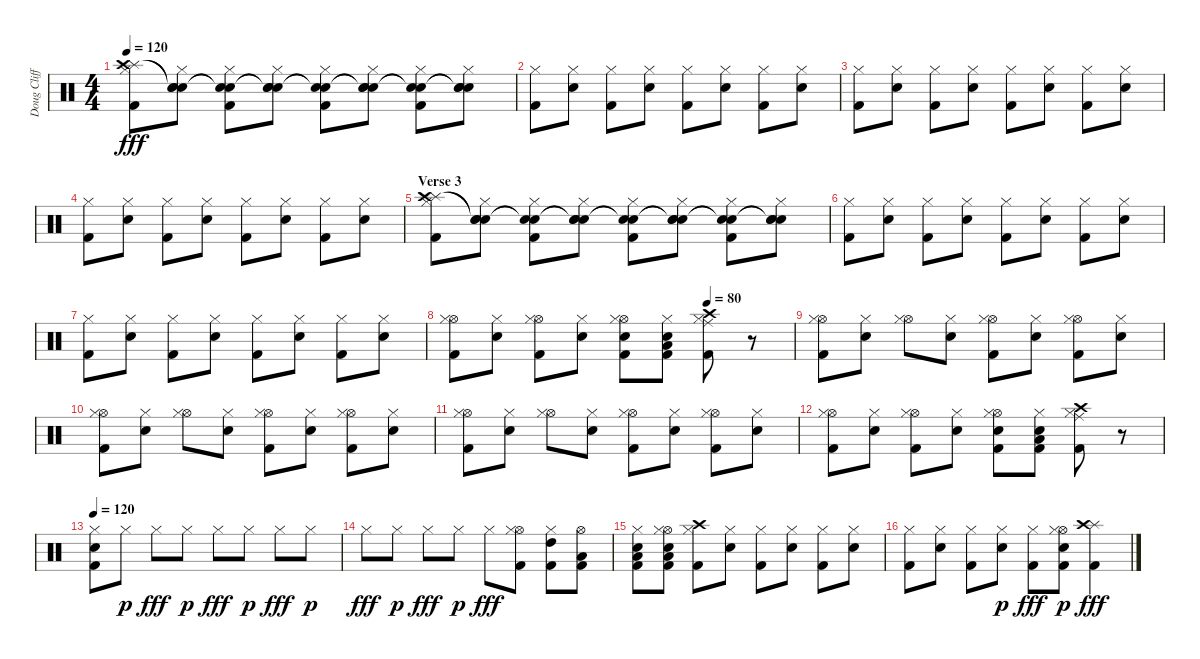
\track ("Doug Clifford" "Doug Cliff") {instrument percussion}
\staff {score}
\articulation defaults
\ts (4 4)
\tempo 120
\clef neutral
\ks c
("Splash (hit)" "Hi-Hat (closed)" "Kick (hit) 2" "Crash high (hit)").8{dy fff} ("Snare (hit)"{t} "Hi-Hat (closed)" "Snare (hit) 2" "Snare (hit)"{t}).8 ("Snare (hit)"{t} "Hi-Hat (closed)" "Kick (hit) 2" "Snare (hit)"{t}).8 ("Snare (hit)"{t} "Hi-Hat (closed)" "Snare (hit) 2" "Snare (hit)"{t}).8 ("Snare (hit)"{t} "Hi-Hat (closed)" "Kick (hit) 2" "Snare (hit)"{t}).8 ("Snare (hit)"{t} "Hi-Hat (closed)" "Snare (hit) 2" "Snare (hit)"{t}).8 ("Snare (hit)"{t} "Hi-Hat (closed)" "Kick (hit) 2" "Snare (hit)"{t}).8 ("Snare (hit)"{t} "Hi-Hat (closed)" "Snare (hit) 2" "Snare (hit)"{t}).8 |
("Hi-Hat (closed)" "Kick (hit) 2").8 ("Hi-Hat (closed)" "Snare (hit) 2").8 ("Hi-Hat (closed)" "Kick (hit) 2").8 ("Hi-Hat (closed)" "Snare (hit) 2").8 ("Hi-Hat (closed)" "Kick (hit) 2").8 ("Hi-Hat (closed)" "Snare (hit) 2").8 ("Hi-Hat (closed)" "Kick (hit) 2").8 ("Hi-Hat (closed)" "Snare (hit) 2").8 |
("Hi-Hat (closed)" "Kick (hit) 2").8 ("Hi-Hat (closed)" "Snare (hit) 2").8 ("Hi-Hat (closed)" "Kick (hit) 2").8 ("Hi-Hat (closed)" "Snare (hit) 2").8 ("Hi-Hat (closed)" "Kick (hit) 2").8 ("Hi-Hat (closed)" "Snare (hit) 2").8 ("Hi-Hat (closed)" "Kick (hit) 2").8 ("Hi-Hat (closed)" "Snare (hit) 2").8 |
("Hi-Hat (closed)" "Kick (hit) 2").8 ("Hi-Hat (closed)" "Snare (hit) 2").8 ("Hi-Hat (closed)" "Kick (hit) 2").8 ("Hi-Hat (closed)" "Snare (hit) 2").8 ("Hi-Hat (closed)" "Kick (hit) 2").8 ("Hi-Hat (closed)" "Snare (hit) 2").8 ("Hi-Hat (closed)" "Kick (hit) 2").8 ("Hi-Hat (closed)" "Snare (hit) 2").8 |
\section ("" "Verse 3")
("Splash (hit)" "Hi-Hat (closed)" "Kick (hit) 2" "Crash high (hit)").8 ("Snare (hit)"{t} "Hi-Hat (closed)" "Snare (hit) 2" "Snare (hit)"{t}).8 ("Snare (hit)"{t} "Hi-Hat (closed)" "Kick (hit) 2" "Snare (hit)"{t}).8 ("Snare (hit)"{t} "Hi-Hat (closed)" "Snare (hit) 2" "Snare (hit)"{t}).8 ("Snare (hit)"{t} "Hi-Hat (closed)" "Kick (hit) 2" "Snare (hit)"{t}).8 ("Snare (hit)"{t} "Hi-Hat (closed)" "Snare (hit) 2" "Snare (hit)"{t}).8 ("Snare (hit)"{t} "Hi-Hat (closed)" "Kick (hit) 2" "Snare (hit)"{t}).8 ("Snare (hit)"{t} "Hi-Hat (closed)" "Snare (hit) 2" "Snare (hit)"{t}).8 |
("Hi-Hat (closed)" "Kick (hit) 2").8 ("Hi-Hat (closed)" "Snare (hit) 2").8 ("Hi-Hat (closed)" "Kick (hit) 2").8 ("Hi-Hat (closed)" "Snare (hit) 2").8 ("Hi-Hat (closed)" "Kick (hit) 2").8 ("Hi-Hat (closed)" "Snare (hit) 2").8 ("Hi-Hat (closed)" "Kick (hit) 2").8 ("Hi-Hat (closed)" "Snare (hit) 2").8 |
("Hi-Hat (closed)" "Kick (hit) 2").8 ("Hi-Hat (closed)" "Snare (hit) 2").8 ("Hi-Hat (closed)" "Kick (hit) 2").8 ("Hi-Hat (closed)" "Snare (hit) 2").8 ("Hi-Hat (closed)" "Kick (hit) 2").8 ("Hi-Hat (closed)" "Snare (hit) 2").8 ("Hi-Hat (closed)" "Kick (hit) 2").8 ("Hi-Hat (closed)" "Snare (hit) 2").8 |
\tempo (80 0.75)
("Hi-Hat (open)" "Hi-Hat (closed)" "Kick (hit) 2").8 ("Hi-Hat (closed)" "Snare (hit) 2").8 ("Hi-Hat (open)" "Hi-Hat (closed)" "Kick (hit) 2").8 ("Hi-Hat (closed)" "Snare (hit) 2").8 ("Hi-Hat (open)" "Hi-Hat (closed)" "Snare (hit) 2" "Kick (hit) 2").8 ("Low Tom (hit)" "Hi-Hat (closed)" "Snare (hit) 2" "Kick (hit) 2").8 ("Ride (middle)" "Crash high (hit)" "Hi-Hat (closed)" "Kick (hit) 2").8 r.8 |
("Hi-Hat (open)" "Hi-Hat (closed)" "Kick (hit) 2").8 ("Hi-Hat (closed)" "Snare (hit) 2").8 ("Hi-Hat (open)" "Hi-Hat (closed)").8 ("Hi-Hat (closed)" "Snare (hit) 2").8 ("Hi-Hat (open)" "Hi-Hat (closed)" "Kick (hit) 2").8 ("Hi-Hat (closed)" "Snare (hit) 2").8 ("Hi-Hat (open)" "Hi-Hat (closed)" "Kick (hit) 2").8 ("Hi-Hat (closed)" "Snare (hit) 2").8 |
("Hi-Hat (open)" "Hi-Hat (closed)" "Kick (hit) 2").8 ("Hi-Hat (closed)" "Snare (hit) 2").8 ("Hi-Hat (open)" "Hi-Hat (closed)").8 ("Hi-Hat (closed)" "Snare (hit) 2").8 ("Hi-Hat (open)" "Hi-Hat (closed)" "Kick (hit) 2").8 ("Hi-Hat (closed)" "Snare (hit) 2").8 ("Hi-Hat (open)" "Hi-Hat (closed)" "Kick (hit) 2").8 ("Hi-Hat (closed)" "Snare (hit) 2").8 |
("Hi-Hat (open)" "Hi-Hat (closed)" "Kick (hit) 2").8 ("Hi-Hat (closed)" "Snare (hit) 2").8 ("Hi-Hat (open)" "Hi-Hat (closed)").8 ("Hi-Hat (closed)" "Snare (hit) 2").8 ("Hi-Hat (open)" "Hi-Hat (closed)" "Kick (hit) 2").8 ("Hi-Hat (closed)" "Snare (hit) 2").8 ("Hi-Hat (open)" "Hi-Hat (closed)" "Kick (hit) 2").8 ("Hi-Hat (closed)" "Snare (hit) 2").8 |
("Hi-Hat (open)" "Hi-Hat (closed)" "Kick (hit) 2").8 ("Hi-Hat (closed)" "Snare (hit) 2").8 ("Hi-Hat (open)" "Hi-Hat (closed)" "Kick (hit) 2").8 ("Hi-Hat (closed)" "Snare (hit) 2").8 ("Hi-Hat (open)" "Hi-Hat (closed)" "Snare (hit) 2" "Kick (hit) 2").8 ("Low Tom (hit)" "Hi-Hat (closed)" "Snare (hit) 2" "Kick (hit) 2").8 ("Ride (middle)" "Crash high (hit)" "Hi-Hat (closed)" "Kick (hit) 2").8 r.8 |
\tempo 120
("Hi-Hat (closed)" "Snare (hit) 2" "Kick (hit) 2").8 "Hi-Hat (closed)".8{dy p} "Hi-Hat (closed)".8{dy fff} "Hi-Hat (closed)".8{dy p} "Hi-Hat (closed)".8{dy fff} "Hi-Hat (closed)".8{dy p} "Hi-Hat (closed)".8{dy fff} "Hi-Hat (closed)".8{dy p} |
"Hi-Hat (closed)".8{dy fff} "Hi-Hat (closed)".8{dy p} "Hi-Hat (closed)".8{dy fff} "Hi-Hat (closed)".8{dy p} "Hi-Hat (closed)".8{dy fff} ("Hi-Hat (open)" "Hi-Hat (closed)" "Kick (hit) 2").8 ("High Tom (hit)" "Hi-Hat (closed)" "Kick (hit) 2").8 ("Low Tom (hit)" "Hi-Hat (open)" "Kick (hit) 2").8 |
("Low Tom (hit)" "Hi-Hat (closed)" "Hand Clap (hit)" "Kick (hit) 2").8 ("Hi-Hat (open)" "Hi-Hat (closed)" "Snare (hit) 2" "Kick (hit) 2" "Low Floor Tom (hit)").8 ("Crash high (hit)" "Hi-Hat (closed)" "Kick (hit) 2").8 ("Hi-Hat (closed)" "Snare (hit) 2").8 ("Hi-Hat (closed)" "Kick (hit) 2").8 ("Hi-Hat (closed)" "Snare (hit) 2").8 ("Hi-Hat (closed)" "Kick (hit) 2").8 ("Hi-Hat (closed)" "Snare (hit) 2").8 |
("Hi-Hat (closed)" "Kick (hit) 2").8 ("Hi-Hat (closed)" "Snare (hit) 2").8 ("Hi-Hat (closed)" "Kick (hit) 2").8 ("Hi-Hat (closed)" "Snare (hit) 2").8{dy p} ("Hi-Hat (closed)" "Kick (hit) 2").8{dy fff} ("Hi-Hat (open)" "Hi-Hat (closed)" "Snare (hit) 2" "Kick (hit) 2").8{dy p} ("Splash (hit)" "Crash high (hit)" "Kick (hit) 2").4{dy fff}
